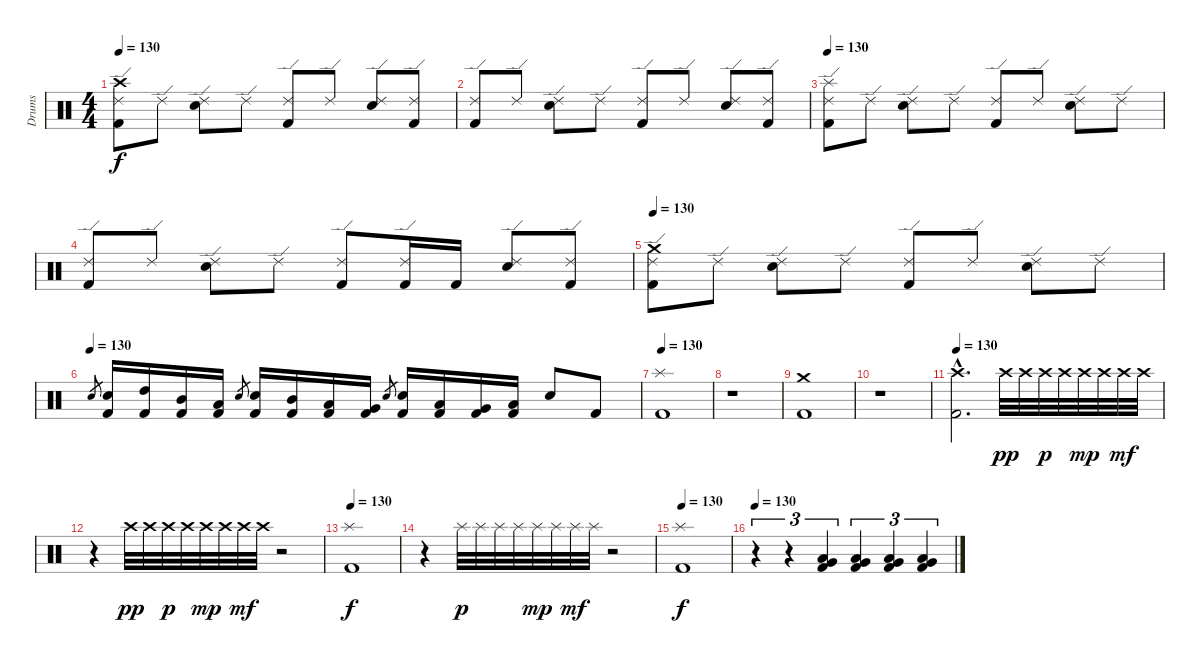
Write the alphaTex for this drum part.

\track ("Drums" "Drums") {instrument percussion}
\staff {score}
\articulation defaults
\ts (4 4)
\tempo 130
\clef neutral
\ks c
("Kick (hit) 2" "Ride (edge) 2" "Crash high (hit)").8{dy f} "Ride (edge) 2".8 ("Snare (hit) 2" "Ride (edge) 2").8 "Ride (edge) 2".8 ("Kick (hit) 2" "Ride (edge) 2").8 "Ride (edge) 2".8 ("Snare (hit) 2" "Ride (edge) 2").8 ("Kick (hit) 2" "Ride (edge) 2").8 |
("Kick (hit) 2" "Ride (edge) 2").8 "Ride (edge) 2".8 ("Snare (hit) 2" "Ride (edge) 2").8 "Ride (edge) 2".8 ("Kick (hit) 2" "Ride (edge) 2").8 "Ride (edge) 2".8 ("Snare (hit) 2" "Ride (edge) 2").8 ("Kick (hit) 2" "Ride (edge) 2").8 |
\tempo 130
("Kick (hit) 2" "Ride (edge) 2" "Splash (hit)").8 "Ride (edge) 2".8 ("Snare (hit) 2" "Ride (edge) 2").8 "Ride (edge) 2".8 ("Kick (hit) 2" "Ride (edge) 2").8 "Ride (edge) 2".8 ("Snare (hit) 2" "Ride (edge) 2").8 "Ride (edge) 2".8 |
("Kick (hit) 2" "Ride (edge) 2").8 "Ride (edge) 2".8 ("Snare (hit) 2" "Ride (edge) 2").8 "Ride (edge) 2".8 ("Kick (hit) 2" "Ride (edge) 2").8 ("Kick (hit) 2" "Ride (edge) 2").16 "Kick (hit) 2".16 ("Snare (hit) 2" "Ride (edge) 2").8 ("Kick (hit) 2" "Ride (edge) 2").8 |
\tempo 130
("Kick (hit) 2" "Ride (edge) 2" "Crash medium (hit)").8 "Ride (edge) 2".8 ("Snare (hit) 2" "Ride (edge) 2").8 "Ride (edge) 2".8 ("Kick (hit) 2" "Ride (edge) 2").8 "Ride (edge) 2".8 ("Snare (hit) 2" "Ride (edge) 2").8 "Ride (edge) 2".8 |
\tempo (130)
"Snare (hit) 2".8{gr} ("Kick (hit) 2" "Snare (hit) 2").16 ("Kick (hit) 2" "High Tom (hit)").16 ("Kick (hit) 2" "Mid Tom (hit)").16 ("Kick (hit) 2" "Low Tom (hit)").16 "Snare (hit) 2".8{gr} ("Kick (hit) 2" "Snare (hit) 2").16 ("Kick (hit) 2" "Mid Tom (hit)").16 ("Kick (hit) 2" "Low Tom (hit)").16 ("Kick (hit) 2" "Very Low Tom (hit)").16 "Snare (hit) 2".8{gr} ("Kick (hit) 2" "Snare (hit) 2").16 ("Kick (hit) 2" "Low Tom (hit)").16 ("Kick (hit) 2" "Very Low Tom (hit)").16 ("Kick (hit) 2" "Low Floor Tom (hit)").16 "Snare (hit) 2".8 "Kick (hit) 2".8 |
\section ("" "")
\tempo 130
("Kick (hit) 2" "Splash (hit)").1 |
r.1 |
("Kick (hit) 2" "Crash medium (hit)").1 |
r.1 |
\tempo 130
("Kick (hit) 2"{hac} "Crash high (hit)"{hac}).2{d} "Crash high (hit)".32{dy pp} "Crash high (hit)".32 "Crash high (hit)".32{dy p} "Crash high (hit)".32 "Crash high (hit)".32{dy mp} "Crash high (hit)".32 "Crash high (hit)".32{dy mf} "Crash high (hit)".32 |
r.4 "Crash high (hit)".32{dy pp} "Crash high (hit)".32 "Crash high (hit)".32{dy p} "Crash high (hit)".32 "Crash high (hit)".32{dy mp} "Crash high (hit)".32 "Crash high (hit)".32{dy mf} "Crash high (hit)".32 r.2 |
\tempo 130
("Kick (hit) 2" "Splash (hit)").1{dy f} |
r.4 "Splash (hit)".32{dy p} "Splash (hit)".32 "Splash (hit)".32 "Splash (hit)".32 "Splash (hit)".32{dy mp} "Splash (hit)".32 "Splash (hit)".32{dy mf} "Splash (hit)".32 r.2 |
\tempo 130
("Kick (hit) 2" "Splash (hit)").1{dy f} |
\tempo 130
r.4{tu (3 2)} r.4{tu (3 2)} ("Kick (hit) 2" "Very Low Tom (hit)" "Low Floor Tom (hit)").4{tu (3 2)} ("Kick (hit) 2" "Very Low Tom (hit)" "Low Floor Tom (hit)").4{tu (3 2)} ("Kick (hit) 2" "Very Low Tom (hit)" "Low Floor Tom (hit)").4{tu (3 2)} ("Kick (hit) 2" "Very Low Tom (hit)" "Low Floor Tom (hit)").4{tu (3 2)}
